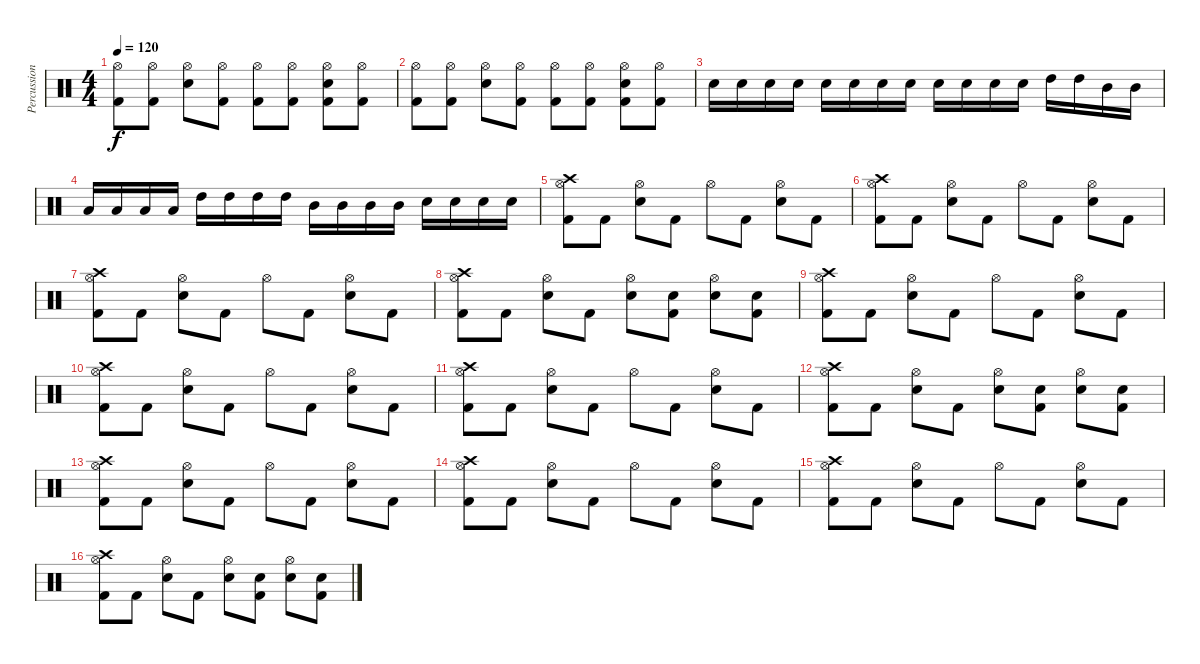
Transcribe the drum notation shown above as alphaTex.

\track ("Percussion" "Percussion") {instrument percussion}
\staff {score}
\articulation defaults
\ts (4 4)
\tempo 120
\clef neutral
\ks c
("Hi-Hat (open)" "Kick (hit) 2").8{dy f} ("Hi-Hat (open)" "Kick (hit) 2").8 ("Hi-Hat (open)" "Snare (hit) 2").8 ("Hi-Hat (open)" "Kick (hit) 2").8 ("Hi-Hat (open)" "Kick (hit) 2").8 ("Hi-Hat (open)" "Kick (hit) 2").8 ("Hi-Hat (open)" "Snare (hit) 2" "Kick (hit) 2").8 ("Hi-Hat (open)" "Kick (hit) 2").8 |
("Hi-Hat (open)" "Kick (hit) 2").8 ("Hi-Hat (open)" "Kick (hit) 2").8 ("Hi-Hat (open)" "Snare (hit) 2").8 ("Hi-Hat (open)" "Kick (hit) 2").8 ("Hi-Hat (open)" "Kick (hit) 2").8 ("Hi-Hat (open)" "Kick (hit) 2").8 ("Hi-Hat (open)" "Snare (hit) 2" "Kick (hit) 2").8 ("Hi-Hat (open)" "Kick (hit) 2").8 |
"Snare (hit) 2".16 "Snare (hit) 2".16 "Snare (hit) 2".16 "Snare (hit) 2".16 "Snare (hit) 2".16 "Snare (hit) 2".16 "Snare (hit) 2".16 "Snare (hit) 2".16 "Snare (hit) 2".16 "Snare (hit) 2".16 "Snare (hit) 2".16 "Snare (hit) 2".16 "High Tom (hit)".16 "High Tom (hit)".16 "Mid Tom (hit)".16 "Mid Tom (hit)".16 |
"Low Tom (hit)".16 "Low Tom (hit)".16 "Low Tom (hit)".16 "Low Tom (hit)".16 "High Tom (hit)".16 "High Tom (hit)".16 "High Tom (hit)".16 "High Tom (hit)".16 "Mid Tom (hit)".16 "Mid Tom (hit)".16 "Mid Tom (hit)".16 "Mid Tom (hit)".16 "Snare (hit) 2".16 "Snare (hit) 2".16 "Snare (hit) 2".16 "Snare (hit) 2".16 |
("Crash high (hit)" "Hi-Hat (open)" "Kick (hit) 2").8{volume 16} "Kick (hit) 2".8 ("Hi-Hat (open)" "Snare (hit) 2").8 "Kick (hit) 2".8 "Hi-Hat (open)".8 "Kick (hit) 2".8 ("Hi-Hat (open)" "Snare (hit) 2").8 "Kick (hit) 2".8 |
("Crash high (hit)" "Hi-Hat (open)" "Kick (hit) 2").8{volume 16} "Kick (hit) 2".8 ("Hi-Hat (open)" "Snare (hit) 2").8 "Kick (hit) 2".8 "Hi-Hat (open)".8 "Kick (hit) 2".8 ("Hi-Hat (open)" "Snare (hit) 2").8 "Kick (hit) 2".8 |
("Crash high (hit)" "Hi-Hat (open)" "Kick (hit) 2").8{volume 16} "Kick (hit) 2".8 ("Hi-Hat (open)" "Snare (hit) 2").8 "Kick (hit) 2".8 "Hi-Hat (open)".8 "Kick (hit) 2".8 ("Hi-Hat (open)" "Snare (hit) 2").8 "Kick (hit) 2".8 |
("Crash high (hit)" "Hi-Hat (open)" "Kick (hit) 2").8{volume 16} "Kick (hit) 2".8 ("Hi-Hat (open)" "Snare (hit) 2").8 "Kick (hit) 2".8 ("Hi-Hat (open)" "Snare (hit) 2").8 ("Snare (hit) 2" "Kick (hit) 2").8 ("Hi-Hat (open)" "Snare (hit) 2").8 ("Snare (hit) 2" "Kick (hit) 2").8 |
("Crash high (hit)" "Hi-Hat (open)" "Kick (hit) 2").8{volume 16} "Kick (hit) 2".8 ("Hi-Hat (open)" "Snare (hit) 2").8 "Kick (hit) 2".8 "Hi-Hat (open)".8 "Kick (hit) 2".8 ("Hi-Hat (open)" "Snare (hit) 2").8 "Kick (hit) 2".8 |
("Crash high (hit)" "Hi-Hat (open)" "Kick (hit) 2").8{volume 16} "Kick (hit) 2".8 ("Hi-Hat (open)" "Snare (hit) 2").8 "Kick (hit) 2".8 "Hi-Hat (open)".8 "Kick (hit) 2".8 ("Hi-Hat (open)" "Snare (hit) 2").8 "Kick (hit) 2".8 |
("Crash high (hit)" "Hi-Hat (open)" "Kick (hit) 2").8{volume 16} "Kick (hit) 2".8 ("Hi-Hat (open)" "Snare (hit) 2").8 "Kick (hit) 2".8 "Hi-Hat (open)".8 "Kick (hit) 2".8 ("Hi-Hat (open)" "Snare (hit) 2").8 "Kick (hit) 2".8 |
("Crash high (hit)" "Hi-Hat (open)" "Kick (hit) 2").8{volume 16} "Kick (hit) 2".8 ("Hi-Hat (open)" "Snare (hit) 2").8 "Kick (hit) 2".8 ("Hi-Hat (open)" "Snare (hit) 2").8 ("Snare (hit) 2" "Kick (hit) 2").8 ("Hi-Hat (open)" "Snare (hit) 2").8 ("Snare (hit) 2" "Kick (hit) 2").8 |
("Crash high (hit)" "Hi-Hat (open)" "Kick (hit) 2").8{volume 16} "Kick (hit) 2".8 ("Hi-Hat (open)" "Snare (hit) 2").8 "Kick (hit) 2".8 "Hi-Hat (open)".8 "Kick (hit) 2".8 ("Hi-Hat (open)" "Snare (hit) 2").8 "Kick (hit) 2".8 |
("Crash high (hit)" "Hi-Hat (open)" "Kick (hit) 2").8{volume 16} "Kick (hit) 2".8 ("Hi-Hat (open)" "Snare (hit) 2").8 "Kick (hit) 2".8 "Hi-Hat (open)".8 "Kick (hit) 2".8 ("Hi-Hat (open)" "Snare (hit) 2").8 "Kick (hit) 2".8 |
("Crash high (hit)" "Hi-Hat (open)" "Kick (hit) 2").8{volume 16} "Kick (hit) 2".8 ("Hi-Hat (open)" "Snare (hit) 2").8 "Kick (hit) 2".8 "Hi-Hat (open)".8 "Kick (hit) 2".8 ("Hi-Hat (open)" "Snare (hit) 2").8 "Kick (hit) 2".8 |
("Crash high (hit)" "Hi-Hat (open)" "Kick (hit) 2").8{volume 16} "Kick (hit) 2".8 ("Hi-Hat (open)" "Snare (hit) 2").8 "Kick (hit) 2".8 ("Hi-Hat (open)" "Snare (hit) 2").8 ("Snare (hit) 2" "Kick (hit) 2").8 ("Hi-Hat (open)" "Snare (hit) 2").8 ("Snare (hit) 2" "Kick (hit) 2").8
